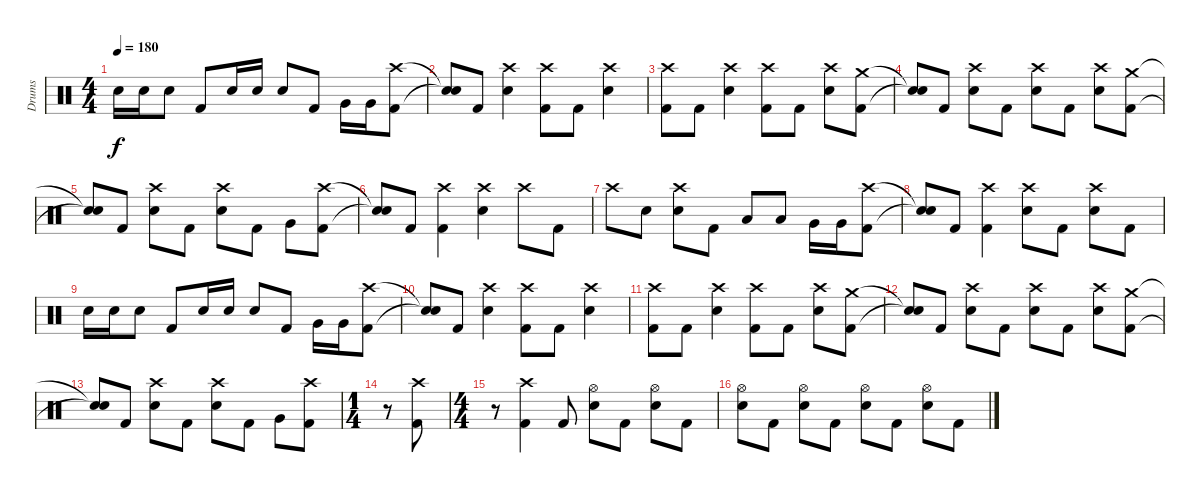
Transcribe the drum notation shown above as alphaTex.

\track ("Drums" "Drums") {instrument percussion}
\staff {score}
\articulation defaults
\ts (4 4)
\tempo 180
\clef neutral
\ks c "Electric Snare (hit)".16{dy f} "Electric Snare (hit)".16 "Electric Snare (hit)".8 "Kick (hit) 2".8 "Electric Snare (hit)".16 "Electric Snare (hit)".16 "Electric Snare (hit)".8 "Kick (hit) 2".8 "Very Low Tom (hit)".16 "Very Low Tom (hit)".16
("Crash high (hit)" "Kick (hit) 2").8 |
("Snare (hit)"{t} "Snare (hit)"{t}).8 "Kick (hit) 2".8 ("Crash high (hit)" "Electric Snare (hit)").4 ("Crash high (hit)" "Kick (hit) 2").8 "Kick (hit) 2".8 ("Crash high (hit)" "Electric Snare (hit)").4 |
("Crash high (hit)" "Kick (hit) 2").8 "Kick (hit) 2".8 ("Crash high (hit)" "Electric Snare (hit)").4 ("Crash high (hit)" "Kick (hit) 2").8 "Kick (hit) 2".8 ("Crash high (hit)" "Electric Snare (hit)").8 ("Crash medium (hit)" "Kick (hit) 2").8 |
("Snare (hit)"{t} "Snare (hit)"{t}).8 "Kick (hit) 2".8 ("Crash high (hit)" "Electric Snare (hit)").8 "Kick (hit) 2".8 ("Crash high (hit)" "Electric Snare (hit)").8 "Kick (hit) 2".8 ("Crash high (hit)" "Electric Snare (hit)").8 ("Crash medium (hit)" "Kick (hit) 2").8 |
("Snare (hit)"{t} "Snare (hit)"{t}).8 "Kick (hit) 2".8 ("Crash high (hit)" "Electric Snare (hit)").8 "Kick (hit) 2".8 ("Crash high (hit)" "Electric Snare (hit)").8 "Kick (hit) 2".8 "Very Low Tom (hit)".8 ("Crash high (hit)" "Kick (hit) 2").8 |
("Snare (hit)"{t} "Snare (hit)"{t}).8 "Kick (hit) 2".8 ("Crash high (hit)" "Kick (hit) 2").4 ("Crash high (hit)" "Electric Snare (hit)").4 "Crash high (hit)".8 "Kick (hit) 2".8 |
"Crash high (hit)".8 "Electric Snare (hit)".8 ("Crash high (hit)" "Electric Snare (hit)").8 "Kick (hit) 2".8 "Low Tom (hit)".8 "Low Tom (hit)".8 "Very Low Tom (hit)".16 "Very Low Tom (hit)".16 ("Crash high (hit)" "Kick (hit) 2").8 |
("Snare (hit)"{t} "Snare (hit)"{t}).8 "Kick (hit) 2".8 ("Crash high (hit)" "Kick (hit) 2").4 ("Crash high (hit)" "Electric Snare (hit)").8 "Kick (hit) 2".8 ("Crash high (hit)" "Electric Snare (hit)").8 "Kick (hit) 2".8 |
"Electric Snare (hit)".16 "Electric Snare (hit)".16 "Electric Snare (hit)".8 "Kick (hit) 2".8 "Electric Snare (hit)".16 "Electric Snare (hit)".16 "Electric Snare (hit)".8 "Kick (hit) 2".8 "Very Low Tom (hit)".16 "Very Low Tom (hit)".16 ("Crash high (hit)" "Kick (hit) 2").8 |
("Snare (hit)"{t} "Snare (hit)"{t}).8 "Kick (hit) 2".8 ("Crash high (hit)" "Electric Snare (hit)").4 ("Crash high (hit)" "Kick (hit) 2").8 "Kick (hit) 2".8 ("Crash high (hit)" "Electric Snare (hit)").4 |
("Crash high (hit)" "Kick (hit) 2").8 "Kick (hit) 2".8 ("Crash high (hit)" "Electric Snare (hit)").4 ("Crash high (hit)" "Kick (hit) 2").8 "Kick (hit) 2".8 ("Crash high (hit)" "Electric Snare (hit)").8 ("Crash medium (hit)" "Kick (hit) 2").8 |
("Snare (hit)"{t} "Snare (hit)"{t}).8 "Kick (hit) 2".8 ("Crash high (hit)" "Electric Snare (hit)").8 "Kick (hit) 2".8 ("Crash high (hit)" "Electric Snare (hit)").8 "Kick (hit) 2".8 ("Crash high (hit)" "Electric Snare (hit)").8 ("Crash medium (hit)" "Kick (hit) 2").8 |
("Snare (hit)"{t} "Snare (hit)"{t}).8 "Kick (hit) 2".8 ("Crash high (hit)" "Electric Snare (hit)").8 "Kick (hit) 2".8 ("Crash high (hit)" "Electric Snare (hit)").8 "Kick (hit) 2".8 "Very Low Tom (hit)".8 ("Crash high (hit)" "Kick (hit) 2").8 |
\ts (1 4)
r.8{volume 0} ("Crash high (hit)" "Kick (hit) 2").8{volume 14} |
\ts (4 4)
r.8{volume 0} ("Crash high (hit)" "Kick (hit) 2").4{volume 14} "Kick (hit) 2".8 ("Hi-Hat (open)" "Electric Snare (hit)").8 "Kick (hit) 2".8 ("Hi-Hat (open)" "Electric Snare (hit)").8 "Kick (hit) 2".8 |
("Hi-Hat (open)" "Electric Snare (hit)").8 "Kick (hit) 2".8 ("Hi-Hat (open)" "Electric Snare (hit)").8 "Kick (hit) 2".8 ("Hi-Hat (open)" "Electric Snare (hit)").8 "Kick (hit) 2".8 ("Hi-Hat (open)" "Electric Snare (hit)").8 "Kick (hit) 2".8
